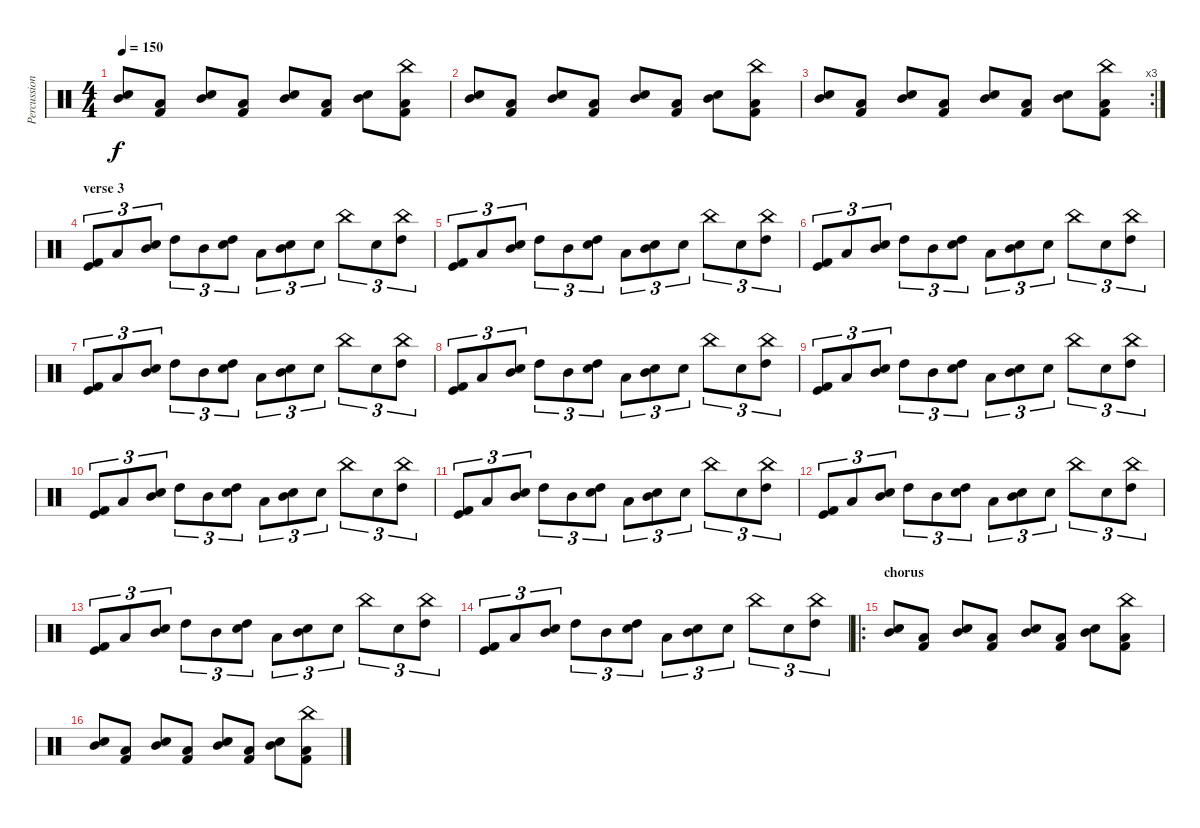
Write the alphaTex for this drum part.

\track ("Percussion" "Percussion") {instrument percussion}
\staff {score}
\articulation defaults
\ts (4 4)
\tempo 150
\clef neutral
\ks c
("Snare (hit) 2" "Mid Tom (hit)").8{dy f} ("Low Tom (hit)" "Kick (hit) 2").8 ("Snare (hit) 2" "Mid Tom (hit)").8 ("Low Tom (hit)" "Kick (hit) 2").8 ("Snare (hit) 2" "Mid Tom (hit)").8 ("Low Tom (hit)" "Kick (hit) 2").8 ("Snare (hit) 2" "Mid Tom (hit)").8 ("China (hit)" "Low Tom (hit)" "Kick (hit) 2").8 |
("Snare (hit) 2" "Mid Tom (hit)").8 ("Low Tom (hit)" "Kick (hit) 2").8 ("Snare (hit) 2" "Mid Tom (hit)").8 ("Low Tom (hit)" "Kick (hit) 2").8 ("Snare (hit) 2" "Mid Tom (hit)").8 ("Low Tom (hit)" "Kick (hit) 2").8 ("Snare (hit) 2" "Mid Tom (hit)").8 ("China (hit)" "Low Tom (hit)" "Kick (hit) 2").8 |
\rc 3
("Snare (hit) 2" "Mid Tom (hit)").8 ("Low Tom (hit)" "Kick (hit) 2").8 ("Snare (hit) 2" "Mid Tom (hit)").8 ("Low Tom (hit)" "Kick (hit) 2").8 ("Snare (hit) 2" "Mid Tom (hit)").8 ("Low Tom (hit)" "Kick (hit) 2").8 ("Snare (hit) 2" "Mid Tom (hit)").8 ("China (hit)" "Low Tom (hit)" "Kick (hit) 2").8 |
\section ("" "verse 3")
("Kick (hit) 2" "Kick (hit)").8{tu (3 2)} "Low Tom (hit)".8{tu (3 2)} ("Mid Tom (hit)" "Snare (hit) 2").8{tu (3 2)} "High Tom (hit)".8{tu (3 2)} "Mid Tom (hit)".8{tu (3 2)} ("High Tom (hit)" "Snare (hit) 2").8{tu (3 2)} "Low Tom (hit)".8{tu (3 2)} ("Mid Tom (hit)" "Snare (hit) 2").8{tu (3 2)} "Snare (hit) 2".8{tu (3 2)} "China (hit)".8{tu (3 2)} "Snare (hit) 2".8{tu (3 2)} ("High Tom (hit)" "China (hit)").8{tu (3 2)} |
("Kick (hit) 2" "Kick (hit)").8{tu (3 2)} "Low Tom (hit)".8{tu (3 2)} ("Mid Tom (hit)" "Snare (hit) 2").8{tu (3 2)} "High Tom (hit)".8{tu (3 2)} "Mid Tom (hit)".8{tu (3 2)} ("High Tom (hit)" "Snare (hit) 2").8{tu (3 2)} "Low Tom (hit)".8{tu (3 2)} ("Mid Tom (hit)" "Snare (hit) 2").8{tu (3 2)} "Snare (hit) 2".8{tu (3 2)} "China (hit)".8{tu (3 2)} "Snare (hit) 2".8{tu (3 2)} ("High Tom (hit)" "China (hit)").8{tu (3 2)} |
("Kick (hit) 2" "Kick (hit)").8{tu (3 2)} "Low Tom (hit)".8{tu (3 2)} ("Mid Tom (hit)" "Snare (hit) 2").8{tu (3 2)} "High Tom (hit)".8{tu (3 2)} "Mid Tom (hit)".8{tu (3 2)} ("High Tom (hit)" "Snare (hit) 2").8{tu (3 2)} "Low Tom (hit)".8{tu (3 2)} ("Mid Tom (hit)" "Snare (hit) 2").8{tu (3 2)} "Snare (hit) 2".8{tu (3 2)} "China (hit)".8{tu (3 2)} "Snare (hit) 2".8{tu (3 2)} ("High Tom (hit)" "China (hit)").8{tu (3 2)} |
("Kick (hit) 2" "Kick (hit)").8{tu (3 2)} "Low Tom (hit)".8{tu (3 2)} ("Mid Tom (hit)" "Snare (hit) 2").8{tu (3 2)} "High Tom (hit)".8{tu (3 2)} "Mid Tom (hit)".8{tu (3 2)} ("High Tom (hit)" "Snare (hit) 2").8{tu (3 2)} "Low Tom (hit)".8{tu (3 2)} ("Mid Tom (hit)" "Snare (hit) 2").8{tu (3 2)} "Snare (hit) 2".8{tu (3 2)} "China (hit)".8{tu (3 2)} "Snare (hit) 2".8{tu (3 2)} ("High Tom (hit)" "China (hit)").8{tu (3 2)} |
("Kick (hit) 2" "Kick (hit)").8{tu (3 2)} "Low Tom (hit)".8{tu (3 2)} ("Mid Tom (hit)" "Snare (hit) 2").8{tu (3 2)} "High Tom (hit)".8{tu (3 2)} "Mid Tom (hit)".8{tu (3 2)} ("High Tom (hit)" "Snare (hit) 2").8{tu (3 2)} "Low Tom (hit)".8{tu (3 2)} ("Mid Tom (hit)" "Snare (hit) 2").8{tu (3 2)} "Snare (hit) 2".8{tu (3 2)} "China (hit)".8{tu (3 2)} "Snare (hit) 2".8{tu (3 2)} ("High Tom (hit)" "China (hit)").8{tu (3 2)} |
("Kick (hit) 2" "Kick (hit)").8{tu (3 2)} "Low Tom (hit)".8{tu (3 2)} ("Mid Tom (hit)" "Snare (hit) 2").8{tu (3 2)} "High Tom (hit)".8{tu (3 2)} "Mid Tom (hit)".8{tu (3 2)} ("High Tom (hit)" "Snare (hit) 2").8{tu (3 2)} "Low Tom (hit)".8{tu (3 2)} ("Mid Tom (hit)" "Snare (hit) 2").8{tu (3 2)} "Snare (hit) 2".8{tu (3 2)} "China (hit)".8{tu (3 2)} "Snare (hit) 2".8{tu (3 2)} ("High Tom (hit)" "China (hit)").8{tu (3 2)} |
("Kick (hit) 2" "Kick (hit)").8{tu (3 2)} "Low Tom (hit)".8{tu (3 2)} ("Mid Tom (hit)" "Snare (hit) 2").8{tu (3 2)} "High Tom (hit)".8{tu (3 2)} "Mid Tom (hit)".8{tu (3 2)} ("High Tom (hit)" "Snare (hit) 2").8{tu (3 2)} "Low Tom (hit)".8{tu (3 2)} ("Mid Tom (hit)" "Snare (hit) 2").8{tu (3 2)} "Snare (hit) 2".8{tu (3 2)} "China (hit)".8{tu (3 2)} "Snare (hit) 2".8{tu (3 2)} ("High Tom (hit)" "China (hit)").8{tu (3 2)} |
("Kick (hit) 2" "Kick (hit)").8{tu (3 2)} "Low Tom (hit)".8{tu (3 2)} ("Mid Tom (hit)" "Snare (hit) 2").8{tu (3 2)} "High Tom (hit)".8{tu (3 2)} "Mid Tom (hit)".8{tu (3 2)} ("High Tom (hit)" "Snare (hit) 2").8{tu (3 2)} "Low Tom (hit)".8{tu (3 2)} ("Mid Tom (hit)" "Snare (hit) 2").8{tu (3 2)} "Snare (hit) 2".8{tu (3 2)} "China (hit)".8{tu (3 2)} "Snare (hit) 2".8{tu (3 2)} ("High Tom (hit)" "China (hit)").8{tu (3 2)} |
("Kick (hit) 2" "Kick (hit)").8{tu (3 2)} "Low Tom (hit)".8{tu (3 2)} ("Mid Tom (hit)" "Snare (hit) 2").8{tu (3 2)} "High Tom (hit)".8{tu (3 2)} "Mid Tom (hit)".8{tu (3 2)} ("High Tom (hit)" "Snare (hit) 2").8{tu (3 2)} "Low Tom (hit)".8{tu (3 2)} ("Mid Tom (hit)" "Snare (hit) 2").8{tu (3 2)} "Snare (hit) 2".8{tu (3 2)} "China (hit)".8{tu (3 2)} "Snare (hit) 2".8{tu (3 2)} ("High Tom (hit)" "China (hit)").8{tu (3 2)} |
("Kick (hit) 2" "Kick (hit)").8{tu (3 2)} "Low Tom (hit)".8{tu (3 2)} ("Mid Tom (hit)" "Snare (hit) 2").8{tu (3 2)} "High Tom (hit)".8{tu (3 2)} "Mid Tom (hit)".8{tu (3 2)} ("High Tom (hit)" "Snare (hit) 2").8{tu (3 2)} "Low Tom (hit)".8{tu (3 2)} ("Mid Tom (hit)" "Snare (hit) 2").8{tu (3 2)} "Snare (hit) 2".8{tu (3 2)} "China (hit)".8{tu (3 2)} "Snare (hit) 2".8{tu (3 2)} ("High Tom (hit)" "China (hit)").8{tu (3 2)} |
("Kick (hit) 2" "Kick (hit)").8{tu (3 2)} "Low Tom (hit)".8{tu (3 2)} ("Mid Tom (hit)" "Snare (hit) 2").8{tu (3 2)} "High Tom (hit)".8{tu (3 2)} "Mid Tom (hit)".8{tu (3 2)} ("High Tom (hit)" "Snare (hit) 2").8{tu (3 2)} "Low Tom (hit)".8{tu (3 2)} ("Mid Tom (hit)" "Snare (hit) 2").8{tu (3 2)} "Snare (hit) 2".8{tu (3 2)} "China (hit)".8{tu (3 2)} "Snare (hit) 2".8{tu (3 2)} ("High Tom (hit)" "China (hit)").8{tu (3 2)} |
\ro
\section ("" "chorus")
("Snare (hit) 2" "Mid Tom (hit)").8 ("Low Tom (hit)" "Kick (hit) 2").8 ("Snare (hit) 2" "Mid Tom (hit)").8 ("Low Tom (hit)" "Kick (hit) 2").8 ("Snare (hit) 2" "Mid Tom (hit)").8 ("Low Tom (hit)" "Kick (hit) 2").8 ("Snare (hit) 2" "Mid Tom (hit)").8 ("China (hit)" "Low Tom (hit)" "Kick (hit) 2").8 |
("Snare (hit) 2" "Mid Tom (hit)").8 ("Low Tom (hit)" "Kick (hit) 2").8 ("Snare (hit) 2" "Mid Tom (hit)").8 ("Low Tom (hit)" "Kick (hit) 2").8 ("Snare (hit) 2" "Mid Tom (hit)").8 ("Low Tom (hit)" "Kick (hit) 2").8 ("Snare (hit) 2" "Mid Tom (hit)").8 ("China (hit)" "Low Tom (hit)" "Kick (hit) 2").8
